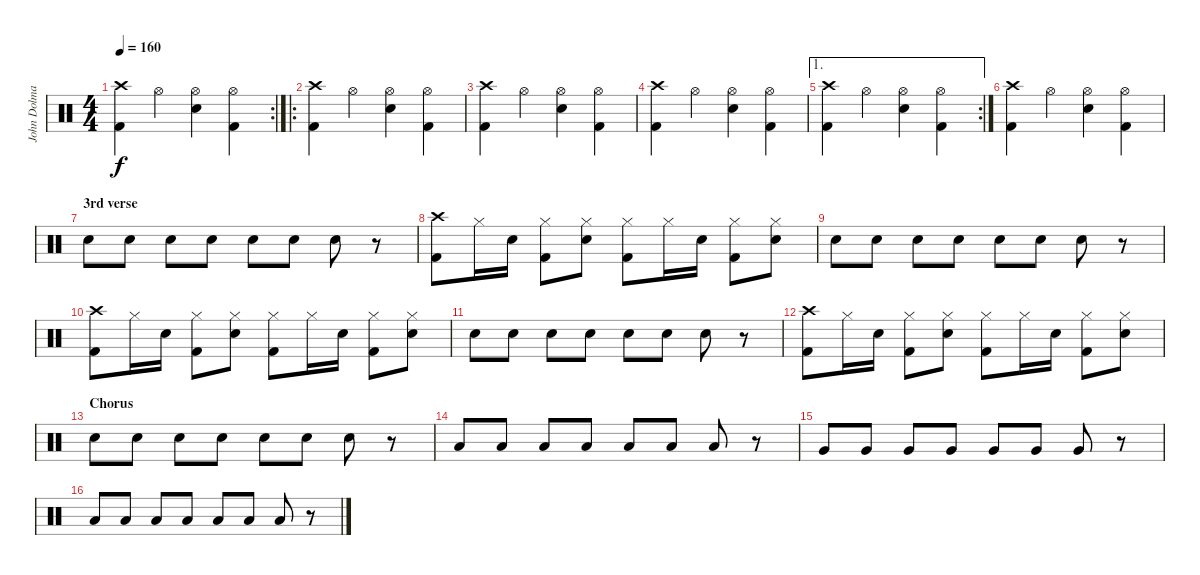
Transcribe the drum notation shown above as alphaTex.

\track ("John Dolmayan" "John Dolma") {instrument percussion}
\staff {score}
\articulation defaults
\rc 2
\ts (4 4)
\tempo 160
\clef neutral
\ks c
("Crash high (hit)" "Kick (hit) 2").4{dy f} "Hi-Hat (open)".4 ("Hi-Hat (open)" "Electric Snare (hit)").4 ("Hi-Hat (open)" "Kick (hit) 2").4 |
\ro
("Crash high (hit)" "Kick (hit) 2").4 "Hi-Hat (open)".4 ("Hi-Hat (open)" "Electric Snare (hit)").4 ("Hi-Hat (open)" "Kick (hit) 2").4 |
("Crash high (hit)" "Kick (hit) 2").4 "Hi-Hat (open)".4 ("Hi-Hat (open)" "Electric Snare (hit)").4 ("Hi-Hat (open)" "Kick (hit) 2").4 |
("Crash high (hit)" "Kick (hit) 2").4 "Hi-Hat (open)".4 ("Hi-Hat (open)" "Electric Snare (hit)").4 ("Hi-Hat (open)" "Kick (hit) 2").4 |
\ae 1
\rc 2
("Crash high (hit)" "Kick (hit) 2").4 "Hi-Hat (open)".4 ("Hi-Hat (open)" "Electric Snare (hit)").4 ("Hi-Hat (open)" "Kick (hit) 2").4 |
("Crash high (hit)" "Kick (hit) 2").4 "Hi-Hat (open)".4 ("Hi-Hat (open)" "Electric Snare (hit)").4 ("Hi-Hat (open)" "Kick (hit) 2").4 |
\section ("" "3rd verse")
"Electric Snare (hit)".8 "Electric Snare (hit)".8 "Electric Snare (hit)".8 "Electric Snare (hit)".8 "Electric Snare (hit)".8 "Electric Snare (hit)".8 "Electric Snare (hit)".8 r.8 |
("Crash high (hit)" "Kick (hit) 2").8 "Hi-Hat (closed)".16 "Electric Snare (hit)".16 ("Hi-Hat (closed)" "Kick (hit) 2").8 ("Hi-Hat (closed)" "Electric Snare (hit)").8 ("Hi-Hat (closed)" "Kick (hit) 2").8 "Hi-Hat (closed)".16 "Electric Snare (hit)".16 ("Hi-Hat (closed)" "Kick (hit) 2").8 ("Hi-Hat (closed)" "Electric Snare (hit)").8 |
"Electric Snare (hit)".8 "Electric Snare (hit)".8 "Electric Snare (hit)".8 "Electric Snare (hit)".8 "Electric Snare (hit)".8 "Electric Snare (hit)".8 "Electric Snare (hit)".8 r.8 |
("Crash high (hit)" "Kick (hit) 2").8 "Hi-Hat (closed)".16 "Electric Snare (hit)".16 ("Hi-Hat (closed)" "Kick (hit) 2").8 ("Hi-Hat (closed)" "Electric Snare (hit)").8 ("Hi-Hat (closed)" "Kick (hit) 2").8 "Hi-Hat (closed)".16 "Electric Snare (hit)".16 ("Hi-Hat (closed)" "Kick (hit) 2").8 ("Hi-Hat (closed)" "Electric Snare (hit)").8 |
"Electric Snare (hit)".8 "Electric Snare (hit)".8 "Electric Snare (hit)".8 "Electric Snare (hit)".8 "Electric Snare (hit)".8 "Electric Snare (hit)".8 "Electric Snare (hit)".8 r.8 |
("Crash high (hit)" "Kick (hit) 2").8 "Hi-Hat (closed)".16 "Electric Snare (hit)".16 ("Hi-Hat (closed)" "Kick (hit) 2").8 ("Hi-Hat (closed)" "Electric Snare (hit)").8 ("Hi-Hat (closed)" "Kick (hit) 2").8 "Hi-Hat (closed)".16 "Electric Snare (hit)".16 ("Hi-Hat (closed)" "Kick (hit) 2").8 ("Hi-Hat (closed)" "Electric Snare (hit)").8 |
\section ("" "Chorus")
"Electric Snare (hit)".8 "Electric Snare (hit)".8 "Electric Snare (hit)".8 "Electric Snare (hit)".8 "Electric Snare (hit)".8 "Electric Snare (hit)".8 "Electric Snare (hit)".8 r.8 |
"Low Tom (hit)".8 "Low Tom (hit)".8 "Low Tom (hit)".8 "Low Tom (hit)".8 "Low Tom (hit)".8 "Low Tom (hit)".8 "Low Tom (hit)".8 r.8 |
"Very Low Tom (hit)".8 "Very Low Tom (hit)".8 "Very Low Tom (hit)".8 "Very Low Tom (hit)".8 "Very Low Tom (hit)".8 "Very Low Tom (hit)".8 "Very Low Tom (hit)".8 r.8 |
"Low Floor Tom (hit)".8 "Low Floor Tom (hit)".8 "Low Floor Tom (hit)".8 "Low Floor Tom (hit)".8 "Low Floor Tom (hit)".8 "Low Floor Tom (hit)".8 "Low Floor Tom (hit)".8 r.8
